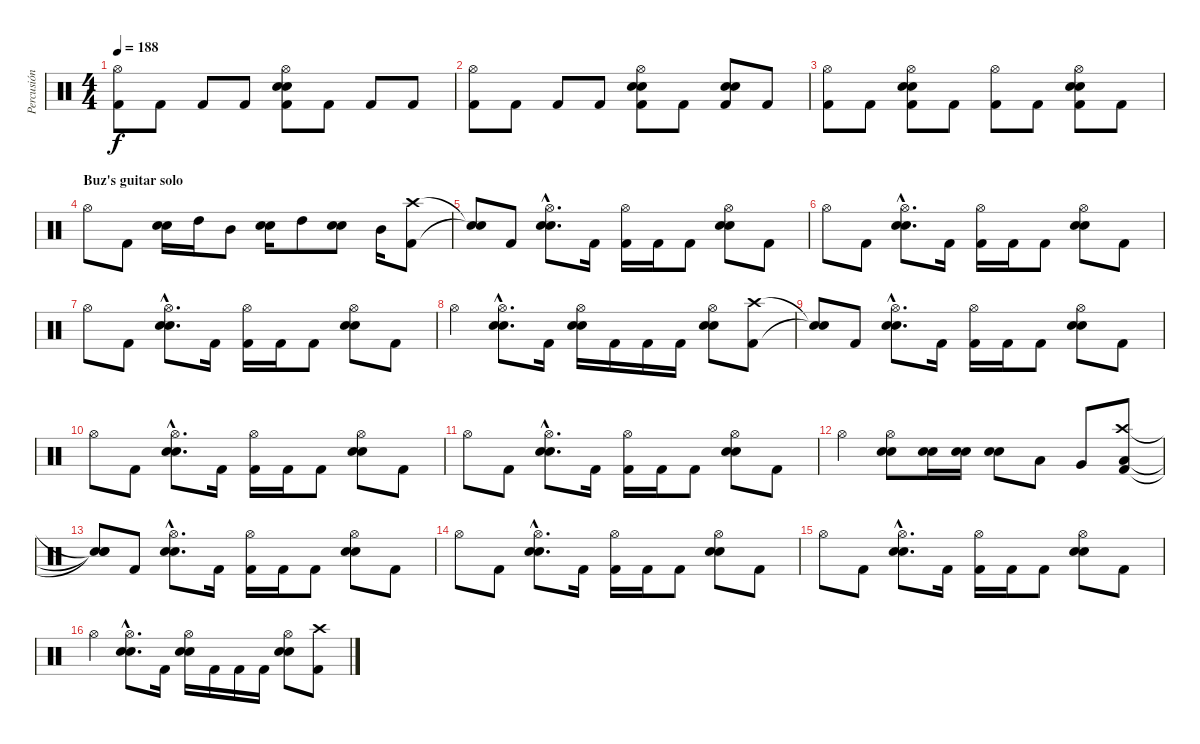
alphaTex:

\track ("Percusión" "Percusión") {instrument percussion}
\staff {score}
\articulation defaults
\ts (4 4)
\tempo 188
\clef neutral
\ks c
("Hi-Hat (open)" "Kick (hit) 2").8{dy f} "Kick (hit) 2".8 "Kick (hit) 2".8 "Kick (hit) 2".8 ("Hi-Hat (open)" "Electric Snare (hit)" "Snare (hit) 2" "Kick (hit) 2").8 "Kick (hit) 2".8 "Kick (hit) 2".8 "Kick (hit) 2".8 |
("Hi-Hat (open)" "Kick (hit) 2").8 "Kick (hit) 2".8 "Kick (hit) 2".8 "Kick (hit) 2".8 ("Hi-Hat (open)" "Electric Snare (hit)" "Snare (hit) 2" "Kick (hit) 2").8 "Kick (hit) 2".8 ("Electric Snare (hit)" "Snare (hit) 2" "Kick (hit) 2").8 "Kick (hit) 2".8 |
("Hi-Hat (open)" "Kick (hit) 2").8 "Kick (hit) 2".8 ("Hi-Hat (open)" "Electric Snare (hit)" "Snare (hit) 2" "Kick (hit) 2").8 "Kick (hit) 2".8 ("Hi-Hat (open)" "Kick (hit) 2").8 "Kick (hit) 2".8 ("Hi-Hat (open)" "Electric Snare (hit)" "Snare (hit) 2" "Kick (hit) 2").8 "Kick (hit) 2".8 |
\section ("" "Buz's guitar solo")
"Hi-Hat (open)".8 "Kick (hit) 2".8 ("Electric Snare (hit)" "Snare (hit) 2").16 "High Tom (hit)".16 "Mid Tom (hit)".8 ("Electric Snare (hit)" "Snare (hit) 2").16 "High Tom (hit)".8 ("Electric Snare (hit)" "Snare (hit) 2").8 "Mid Tom (hit)".16 ("Crash high (hit)" "Kick (hit) 2").8 |
("Snare (hit)"{t} "Snare (hit)"{t}).8 "Kick (hit) 2".8 ("Hi-Hat (open)"{hac} "Electric Snare (hit)"{hac} "Snare (hit) 2"{hac}).8{d} "Kick (hit) 2".16 ("Hi-Hat (open)" "Kick (hit) 2").16 "Kick (hit) 2".16 "Kick (hit) 2".8 ("Hi-Hat (open)" "Electric Snare (hit)" "Snare (hit) 2").8 "Kick (hit) 2".8 |
"Hi-Hat (open)".8 "Kick (hit) 2".8 ("Hi-Hat (open)"{hac} "Electric Snare (hit)"{hac} "Snare (hit) 2"{hac}).8{d} "Kick (hit) 2".16 ("Hi-Hat (open)" "Kick (hit) 2").16 "Kick (hit) 2".16 "Kick (hit) 2".8 ("Hi-Hat (open)" "Electric Snare (hit)" "Snare (hit) 2").8 "Kick (hit) 2".8 |
"Hi-Hat (open)".8 "Kick (hit) 2".8 ("Hi-Hat (open)"{hac} "Electric Snare (hit)"{hac} "Snare (hit) 2"{hac}).8{d} "Kick (hit) 2".16 ("Hi-Hat (open)" "Kick (hit) 2").16 "Kick (hit) 2".16 "Kick (hit) 2".8 ("Hi-Hat (open)" "Electric Snare (hit)" "Snare (hit) 2").8 "Kick (hit) 2".8 |
"Hi-Hat (open)".4 ("Hi-Hat (open)"{hac} "Electric Snare (hit)"{hac} "Snare (hit) 2"{hac}).8{d} "Kick (hit) 2".16 ("Hi-Hat (open)" "Electric Snare (hit)" "Snare (hit) 2").16 "Kick (hit) 2".16 "Kick (hit) 2".16 "Kick (hit) 2".16 ("Hi-Hat (open)" "Electric Snare (hit)" "Snare (hit) 2").8 ("Crash high (hit)" "Kick (hit) 2").8 |
("Snare (hit)"{t} "Snare (hit)"{t}).8 "Kick (hit) 2".8 ("Hi-Hat (open)"{hac} "Electric Snare (hit)"{hac} "Snare (hit) 2"{hac}).8{d} "Kick (hit) 2".16 ("Hi-Hat (open)" "Kick (hit) 2").16 "Kick (hit) 2".16 "Kick (hit) 2".8 ("Hi-Hat (open)" "Electric Snare (hit)" "Snare (hit) 2").8 "Kick (hit) 2".8 |
"Hi-Hat (open)".8 "Kick (hit) 2".8 ("Hi-Hat (open)"{hac} "Electric Snare (hit)"{hac} "Snare (hit) 2"{hac}).8{d} "Kick (hit) 2".16 ("Hi-Hat (open)" "Kick (hit) 2").16 "Kick (hit) 2".16 "Kick (hit) 2".8 ("Hi-Hat (open)" "Electric Snare (hit)" "Snare (hit) 2").8 "Kick (hit) 2".8 |
"Hi-Hat (open)".8 "Kick (hit) 2".8 ("Hi-Hat (open)"{hac} "Electric Snare (hit)"{hac} "Snare (hit) 2"{hac}).8{d} "Kick (hit) 2".16 ("Hi-Hat (open)" "Kick (hit) 2").16 "Kick (hit) 2".16 "Kick (hit) 2".8 ("Hi-Hat (open)" "Electric Snare (hit)" "Snare (hit) 2").8 "Kick (hit) 2".8 |
"Hi-Hat (open)".4 ("Hi-Hat (open)" "Electric Snare (hit)" "Snare (hit) 2").8 ("Electric Snare (hit)" "Snare (hit) 2").16 ("Electric Snare (hit)" "Snare (hit) 2").16 ("Electric Snare (hit)" "Snare (hit) 2").8 "Low Tom (hit)".8 "Very Low Tom (hit)".8 ("Crash high (hit)" "Low Floor Tom (hit)" "Kick (hit) 2").8 |
("Snare (hit)"{t} "Snare (hit)"{t} "Snare (hit)"{t}).8 "Kick (hit) 2".8 ("Hi-Hat (open)"{hac} "Electric Snare (hit)"{hac} "Snare (hit) 2"{hac}).8{d} "Kick (hit) 2".16 ("Hi-Hat (open)" "Kick (hit) 2").16 "Kick (hit) 2".16 "Kick (hit) 2".8 ("Hi-Hat (open)" "Electric Snare (hit)" "Snare (hit) 2").8 "Kick (hit) 2".8 |
"Hi-Hat (open)".8 "Kick (hit) 2".8 ("Hi-Hat (open)"{hac} "Electric Snare (hit)"{hac} "Snare (hit) 2"{hac}).8{d} "Kick (hit) 2".16 ("Hi-Hat (open)" "Kick (hit) 2").16 "Kick (hit) 2".16 "Kick (hit) 2".8 ("Hi-Hat (open)" "Electric Snare (hit)" "Snare (hit) 2").8 "Kick (hit) 2".8 |
"Hi-Hat (open)".8 "Kick (hit) 2".8 ("Hi-Hat (open)"{hac} "Electric Snare (hit)"{hac} "Snare (hit) 2"{hac}).8{d} "Kick (hit) 2".16 ("Hi-Hat (open)" "Kick (hit) 2").16 "Kick (hit) 2".16 "Kick (hit) 2".8 ("Hi-Hat (open)" "Electric Snare (hit)" "Snare (hit) 2").8 "Kick (hit) 2".8 |
"Hi-Hat (open)".4 ("Hi-Hat (open)"{hac} "Electric Snare (hit)"{hac} "Snare (hit) 2"{hac}).8{d} "Kick (hit) 2".16 ("Hi-Hat (open)" "Electric Snare (hit)" "Snare (hit) 2").16 "Kick (hit) 2".16 "Kick (hit) 2".16 "Kick (hit) 2".16 ("Hi-Hat (open)" "Electric Snare (hit)" "Snare (hit) 2").8 ("Crash high (hit)" "Kick (hit) 2").8
